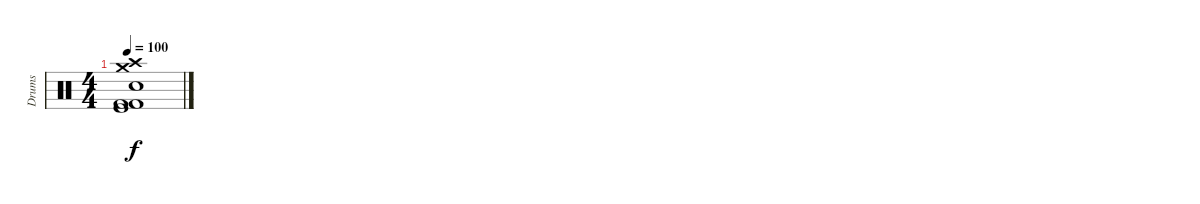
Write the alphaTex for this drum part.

\track ("Drums" "Drums") {instrument percussion}
\staff {score}
\articulation defaults
\ts (4 4)
\tempo 100
\clef neutral
\ks c
("Crash medium (hit)" "Crash high (hit)" "Snare (hit) 2" "Kick (hit) 2" "Kick (hit) 2" "Kick (hit)").1{dy f}
